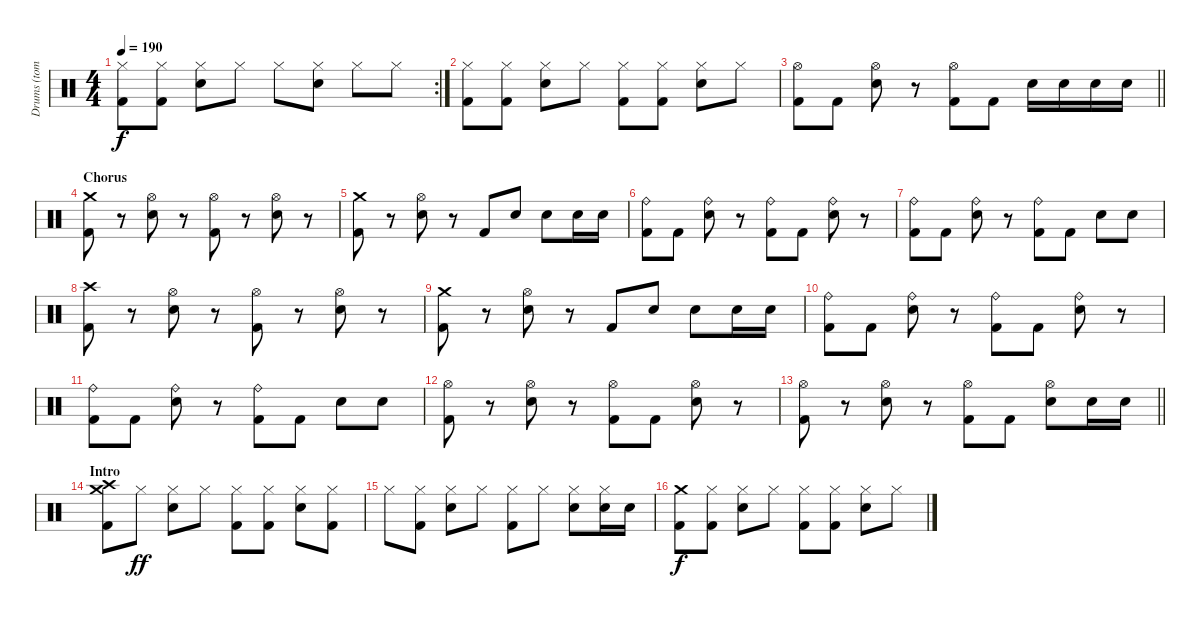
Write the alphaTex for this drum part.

\track ("Drums (tom)" "Drums (tom") {instrument percussion}
\staff {score}
\articulation defaults
\rc 2
\ts (4 4)
\tempo 190
\clef neutral
\ks c
("Hi-Hat (closed)" "Kick (hit) 2").8{dy f} ("Hi-Hat (closed)" "Kick (hit) 2").8 ("Hi-Hat (closed)" "Electric Snare (hit)").8 "Hi-Hat (closed)".8 "Hi-Hat (closed)".8 ("Hi-Hat (closed)" "Electric Snare (hit)").8 "Hi-Hat (closed)".8 "Hi-Hat (closed)".8 |
("Hi-Hat (closed)" "Kick (hit) 2").8 ("Hi-Hat (closed)" "Kick (hit) 2").8 ("Hi-Hat (closed)" "Electric Snare (hit)").8 "Hi-Hat (closed)".8 ("Hi-Hat (closed)" "Kick (hit) 2").8 ("Hi-Hat (closed)" "Kick (hit) 2").8 ("Hi-Hat (closed)" "Electric Snare (hit)").8 "Hi-Hat (closed)".8 |
\barLineRight lightlight
("Hi-Hat (open)" "Kick (hit) 2").8 "Kick (hit) 2".8 ("Hi-Hat (open)" "Electric Snare (hit)").8 r.8 ("Hi-Hat (open)" "Kick (hit) 2").8 "Kick (hit) 2".8 "Electric Snare (hit)".16 "Electric Snare (hit)".16 "Electric Snare (hit)".16 "Electric Snare (hit)".16 |
\section ("" "Chorus")
("Crash medium (hit)" "Kick (hit) 2").8 r.8 ("Hi-Hat (open)" "Electric Snare (hit)").8 r.8 ("Hi-Hat (open)" "Kick (hit) 2").8 r.8 ("Hi-Hat (open)" "Electric Snare (hit)").8 r.8 |
("Crash medium (hit)" "Kick (hit) 2").8 r.8 ("Hi-Hat (open)" "Electric Snare (hit)").8 r.8 "Kick (hit) 2".8 "Electric Snare (hit)".8 "Electric Snare (hit)".8 "Electric Snare (hit)".16 "Electric Snare (hit)".16 |
("Ride (bell)" "Kick (hit) 2").8 "Kick (hit) 2".8 ("Ride (bell)" "Electric Snare (hit)").8 r.8 ("Ride (bell)" "Kick (hit) 2").8 "Kick (hit) 2".8 ("Ride (bell)" "Electric Snare (hit)").8 r.8 |
("Ride (bell)" "Kick (hit) 2").8 "Kick (hit) 2".8 ("Ride (bell)" "Electric Snare (hit)").8 r.8 ("Ride (bell)" "Kick (hit) 2").8 "Kick (hit) 2".8 "Electric Snare (hit)".8 "Electric Snare (hit)".8 |
("Crash high (hit)" "Kick (hit) 2").8 r.8 ("Hi-Hat (open)" "Electric Snare (hit)").8 r.8 ("Hi-Hat (open)" "Kick (hit) 2").8 r.8 ("Hi-Hat (open)" "Electric Snare (hit)").8 r.8 |
("Crash medium (hit)" "Kick (hit) 2").8 r.8 ("Hi-Hat (open)" "Electric Snare (hit)").8 r.8 "Kick (hit) 2".8 "Electric Snare (hit)".8 "Electric Snare (hit)".8 "Electric Snare (hit)".16 "Electric Snare (hit)".16 |
("Ride (bell)" "Kick (hit) 2").8 "Kick (hit) 2".8 ("Ride (bell)" "Electric Snare (hit)").8 r.8 ("Ride (bell)" "Kick (hit) 2").8 "Kick (hit) 2".8 ("Ride (bell)" "Electric Snare (hit)").8 r.8 |
("Ride (bell)" "Kick (hit) 2").8 "Kick (hit) 2".8 ("Ride (bell)" "Electric Snare (hit)").8 r.8 ("Ride (bell)" "Kick (hit) 2").8 "Kick (hit) 2".8 "Electric Snare (hit)".8 "Electric Snare (hit)".8 |
("Hi-Hat (open)" "Kick (hit) 2").8 r.8 ("Hi-Hat (open)" "Electric Snare (hit)").8 r.8 ("Hi-Hat (open)" "Kick (hit) 2").8 "Kick (hit) 2".8 ("Hi-Hat (open)" "Electric Snare (hit)").8 r.8 |
\barLineRight lightlight
("Hi-Hat (open)" "Kick (hit) 2").8 r.8 ("Hi-Hat (open)" "Electric Snare (hit)").8 r.8 ("Hi-Hat (open)" "Kick (hit) 2").8 "Kick (hit) 2".8 ("Hi-Hat (open)" "Electric Snare (hit)").8 "Electric Snare (hit)".16 "Electric Snare (hit)".16 |
\section ("" "Intro")
("Crash high (hit)" "Kick (hit) 2" "Crash medium (hit)").8 "Hi-Hat (closed)".8{dy ff} ("Hi-Hat (closed)" "Electric Snare (hit)").8 "Hi-Hat (closed)".8 ("Hi-Hat (closed)" "Kick (hit) 2").8 ("Hi-Hat (closed)" "Kick (hit) 2").8 ("Hi-Hat (closed)" "Electric Snare (hit)").8 ("Hi-Hat (closed)" "Kick (hit) 2").8 |
"Hi-Hat (closed)".8 ("Hi-Hat (closed)" "Kick (hit) 2").8 ("Hi-Hat (closed)" "Electric Snare (hit)").8 "Hi-Hat (closed)".8 ("Hi-Hat (closed)" "Kick (hit) 2").8 "Hi-Hat (closed)".8 ("Hi-Hat (closed)" "Electric Snare (hit)").8 ("Hi-Hat (closed)" "Electric Snare (hit)").16 "Electric Snare (hit)".16 |
("Crash medium (hit)" "Kick (hit) 2").8{dy f} ("Hi-Hat (closed)" "Kick (hit) 2").8 ("Hi-Hat (closed)" "Electric Snare (hit)").8 "Hi-Hat (closed)".8 ("Hi-Hat (closed)" "Kick (hit) 2").8 ("Hi-Hat (closed)" "Kick (hit) 2").8 ("Hi-Hat (closed)" "Electric Snare (hit)").8 "Hi-Hat (closed)".8
